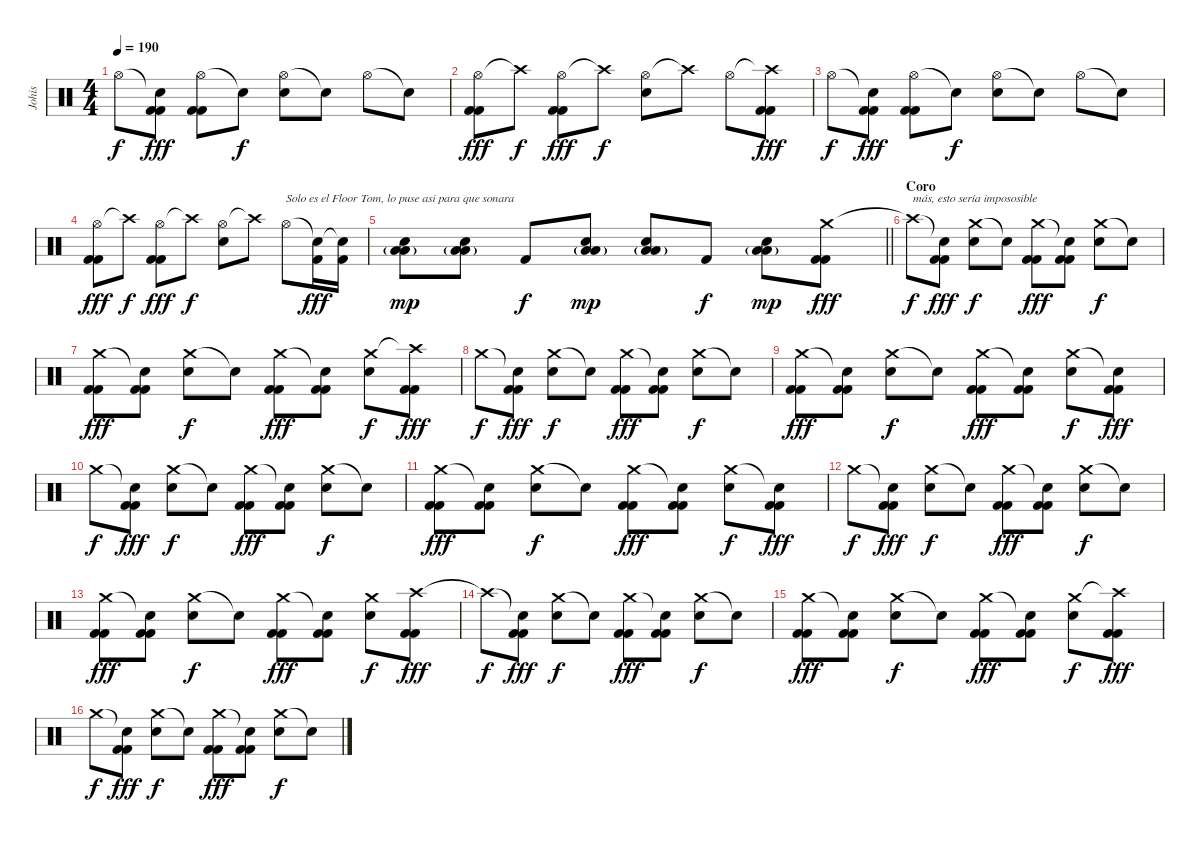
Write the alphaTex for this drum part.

\track ("Johis" "Johis") {instrument percussion}
\staff {score}
\articulation defaults
\ts (4 4)
\tempo 190
\clef neutral
\ks c "Hi-Hat (open)".8{dy f}
("Snare (hit)"{t} "Kick (hit) 2" "Kick (hit) 2").8{dy fff} ("Hi-Hat (open)" "Kick (hit) 2" "Kick (hit) 2").8 "Snare (hit)"{t}.8{dy f} ("Hi-Hat (open)" "Electric Snare (hit)").8 "Snare (hit)"{t}.8 "Hi-Hat (open)".8 "Snare (hit)"{t}.8 |
("Hi-Hat (open)" "Kick (hit) 2" "Kick (hit) 2").8{dy fff} "Crash high (hit)"{t}.8{dy f} ("Hi-Hat (open)" "Kick (hit) 2" "Kick (hit) 2").8{dy fff} "Crash high (hit)"{t}.8{dy f} ("Hi-Hat (open)" "Electric Snare (hit)").8 "Crash high (hit)"{t}.8 "Hi-Hat (open)".8 ("Crash high (hit)"{t} "Kick (hit) 2" "Kick (hit) 2").8{dy fff} |
"Hi-Hat (open)".8{dy f} ("Snare (hit)"{t} "Kick (hit) 2" "Kick (hit) 2").8{dy fff} ("Hi-Hat (open)" "Kick (hit) 2" "Kick (hit) 2").8 "Snare (hit)"{t}.8{dy f} ("Hi-Hat (open)" "Electric Snare (hit)").8 "Snare (hit)"{t}.8 "Hi-Hat (open)".8 "Snare (hit)"{t}.8 |
("Hi-Hat (open)" "Kick (hit) 2" "Kick (hit) 2").8{dy fff} "Crash high (hit)"{t}.8{dy f} ("Hi-Hat (open)" "Kick (hit) 2" "Kick (hit) 2").8{dy fff} "Crash high (hit)"{t}.8{dy f} ("Hi-Hat (open)" "Electric Snare (hit)").8 "Crash high (hit)"{t}.8 "Hi-Hat (open)".8{txt "Solo es el Floor Tom, lo puse asi para que sonara "} ("Snare (hit)"{t} "Kick (hit) 2").16{dy fff} ("Snare (hit)"{t} "Kick (hit) 2").16 |
\barLineRight lightlight
("Low Tom (hit)"{g} "Electric Snare (hit)" "Low Floor Tom (hit)").8{dy mp} ("Low Tom (hit)"{g} "Electric Snare (hit)" "Low Floor Tom (hit)").8 "Kick (hit) 2".8{dy f} ("Low Tom (hit)"{g} "Electric Snare (hit)" "Low Floor Tom (hit)").8{dy mp} ("Low Tom (hit)"{g} "Electric Snare (hit)" "Low Floor Tom (hit)").8 "Kick (hit) 2".8{dy f} ("Low Tom (hit)"{g} "Electric Snare (hit)" "Low Floor Tom (hit)").8{dy mp} ("Crash medium (hit)" "Kick (hit) 2" "Kick (hit) 2").8{dy fff} |
\section ("" "Coro")
"Crash high (hit)"{t}.8{txt "más, esto sería impososible" dy f} ("Snare (hit)"{t} "Kick (hit) 2" "Kick (hit) 2").8{dy fff} ("Crash medium (hit)" "Electric Snare (hit)").8{dy f} "Snare (hit)"{t}.8 ("Crash medium (hit)" "Kick (hit) 2" "Kick (hit) 2").8{dy fff} ("Snare (hit)"{t} "Kick (hit) 2" "Kick (hit) 2").8 ("Crash medium (hit)" "Electric Snare (hit)").8{dy f} "Snare (hit)"{t}.8 |
("Crash medium (hit)" "Kick (hit) 2" "Kick (hit) 2").8{dy fff} ("Snare (hit)"{t} "Kick (hit) 2" "Kick (hit) 2").8 ("Crash medium (hit)" "Electric Snare (hit)").8{dy f} "Snare (hit)"{t}.8 ("Crash medium (hit)" "Kick (hit) 2" "Kick (hit) 2").8{dy fff} ("Snare (hit)"{t} "Kick (hit) 2" "Kick (hit) 2").8 ("Crash medium (hit)" "Electric Snare (hit)").8{dy f} ("Crash high (hit)"{t} "Kick (hit) 2" "Kick (hit) 2").8{dy fff} |
"Crash medium (hit)".8{dy f} ("Snare (hit)"{t} "Kick (hit) 2" "Kick (hit) 2").8{dy fff} ("Crash medium (hit)" "Electric Snare (hit)").8{dy f} "Snare (hit)"{t}.8 ("Crash medium (hit)" "Kick (hit) 2" "Kick (hit) 2").8{dy fff} ("Snare (hit)"{t} "Kick (hit) 2" "Kick (hit) 2").8 ("Crash medium (hit)" "Electric Snare (hit)").8{dy f} "Snare (hit)"{t}.8 |
("Crash medium (hit)" "Kick (hit) 2" "Kick (hit) 2").8{dy fff} ("Snare (hit)"{t} "Kick (hit) 2" "Kick (hit) 2").8 ("Crash medium (hit)" "Electric Snare (hit)").8{dy f} "Snare (hit)"{t}.8 ("Crash medium (hit)" "Kick (hit) 2" "Kick (hit) 2").8{dy fff} ("Snare (hit)"{t} "Kick (hit) 2" "Kick (hit) 2").8 ("Crash medium (hit)" "Electric Snare (hit)").8{dy f} ("Snare (hit)"{t} "Kick (hit) 2" "Kick (hit) 2").8{dy fff} |
"Crash medium (hit)".8{dy f} ("Snare (hit)"{t} "Kick (hit) 2" "Kick (hit) 2").8{dy fff} ("Crash medium (hit)" "Electric Snare (hit)").8{dy f} "Snare (hit)"{t}.8 ("Crash medium (hit)" "Kick (hit) 2" "Kick (hit) 2").8{dy fff} ("Snare (hit)"{t} "Kick (hit) 2" "Kick (hit) 2").8 ("Crash medium (hit)" "Electric Snare (hit)").8{dy f} "Snare (hit)"{t}.8 |
("Crash medium (hit)" "Kick (hit) 2" "Kick (hit) 2").8{dy fff} ("Snare (hit)"{t} "Kick (hit) 2" "Kick (hit) 2").8 ("Crash medium (hit)" "Electric Snare (hit)").8{dy f} "Snare (hit)"{t}.8 ("Crash medium (hit)" "Kick (hit) 2" "Kick (hit) 2").8{dy fff} ("Snare (hit)"{t} "Kick (hit) 2" "Kick (hit) 2").8 ("Crash medium (hit)" "Electric Snare (hit)").8{dy f} ("Snare (hit)"{t} "Kick (hit) 2" "Kick (hit) 2").8{dy fff} |
"Crash medium (hit)".8{dy f} ("Snare (hit)"{t} "Kick (hit) 2" "Kick (hit) 2").8{dy fff} ("Crash medium (hit)" "Electric Snare (hit)").8{dy f} "Snare (hit)"{t}.8 ("Crash medium (hit)" "Kick (hit) 2" "Kick (hit) 2").8{dy fff} ("Snare (hit)"{t} "Kick (hit) 2" "Kick (hit) 2").8 ("Crash medium (hit)" "Electric Snare (hit)").8{dy f} "Snare (hit)"{t}.8 |
("Crash medium (hit)" "Kick (hit) 2" "Kick (hit) 2").8{dy fff} ("Snare (hit)"{t} "Kick (hit) 2" "Kick (hit) 2").8 ("Crash medium (hit)" "Electric Snare (hit)").8{dy f} "Snare (hit)"{t}.8 ("Crash medium (hit)" "Kick (hit) 2" "Kick (hit) 2").8{dy fff} ("Snare (hit)"{t} "Kick (hit) 2" "Kick (hit) 2").8 ("Crash medium (hit)" "Electric Snare (hit)").8{dy f} ("Crash high (hit)" "Kick (hit) 2" "Kick (hit) 2").8{dy fff} |
"Crash high (hit)"{t}.8{dy f} ("Snare (hit)"{t} "Kick (hit) 2" "Kick (hit) 2").8{dy fff} ("Crash medium (hit)" "Electric Snare (hit)").8{dy f} "Snare (hit)"{t}.8 ("Crash medium (hit)" "Kick (hit) 2" "Kick (hit) 2").8{dy fff} ("Snare (hit)"{t} "Kick (hit) 2" "Kick (hit) 2").8 ("Crash medium (hit)" "Electric Snare (hit)").8{dy f} "Snare (hit)"{t}.8 |
("Crash medium (hit)" "Kick (hit) 2" "Kick (hit) 2").8{dy fff} ("Snare (hit)"{t} "Kick (hit) 2" "Kick (hit) 2").8 ("Crash medium (hit)" "Electric Snare (hit)").8{dy f} "Snare (hit)"{t}.8 ("Crash medium (hit)" "Kick (hit) 2" "Kick (hit) 2").8{dy fff} ("Snare (hit)"{t} "Kick (hit) 2" "Kick (hit) 2").8 ("Crash medium (hit)" "Electric Snare (hit)").8{dy f} ("Crash high (hit)"{t} "Kick (hit) 2" "Kick (hit) 2").8{dy fff} |
"Crash medium (hit)".8{dy f} ("Snare (hit)"{t} "Kick (hit) 2" "Kick (hit) 2").8{dy fff} ("Crash medium (hit)" "Electric Snare (hit)").8{dy f} "Snare (hit)"{t}.8 ("Crash medium (hit)" "Kick (hit) 2" "Kick (hit) 2").8{dy fff} ("Snare (hit)"{t} "Kick (hit) 2" "Kick (hit) 2").8 ("Crash medium (hit)" "Electric Snare (hit)").8{dy f} "Snare (hit)"{t}.8
